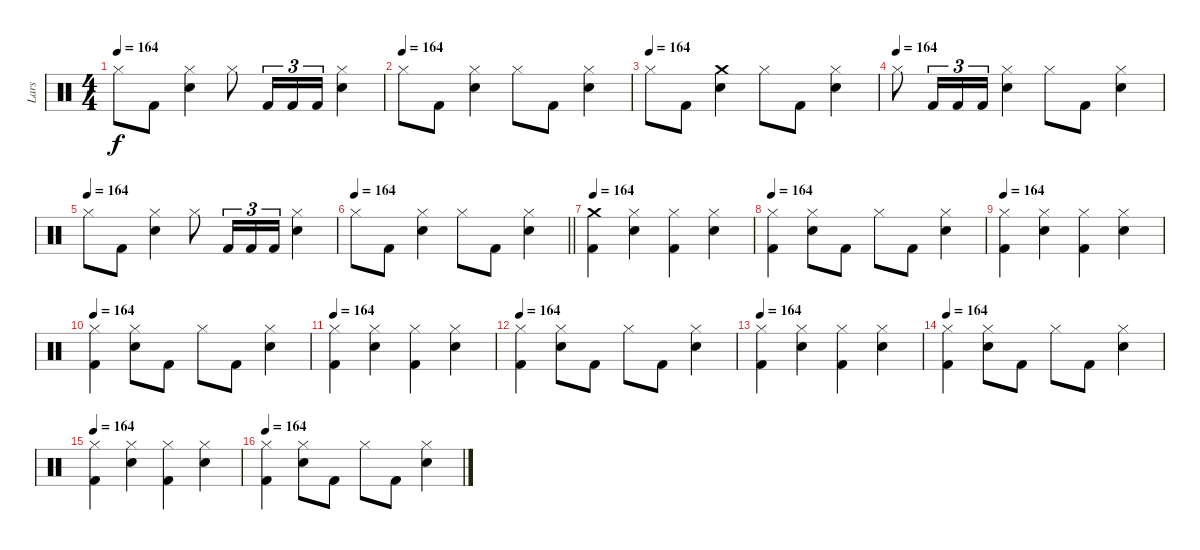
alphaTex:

\track ("Lars" "Lars") {instrument percussion}
\staff {score}
\articulation defaults
\ts (4 4)
\tempo 164
\clef neutral
\ks c "Hi-Hat (closed)".8{dy f} "Kick (hit) 2".8
("Snare (hit) 2" "Hi-Hat (closed)").4 "Hi-Hat (closed)".8 "Kick (hit) 2".16{tu (3 2)} "Kick (hit) 2".16{tu (3 2)} "Kick (hit) 2".16{tu (3 2)} ("Snare (hit) 2" "Hi-Hat (closed)").4 |
\tempo (164)
"Hi-Hat (closed)".8 "Kick (hit) 2".8 ("Snare (hit) 2" "Hi-Hat (closed)").4 "Hi-Hat (closed)".8 "Kick (hit) 2".8 ("Snare (hit) 2" "Hi-Hat (closed)").4 |
\tempo (164)
"Hi-Hat (closed)".8 "Kick (hit) 2".8 ("Crash medium (hit)" "Snare (hit) 2").4 "Hi-Hat (closed)".8 "Kick (hit) 2".8 ("Snare (hit) 2" "Hi-Hat (closed)").4 |
\tempo (164)
"Hi-Hat (closed)".8 "Kick (hit) 2".16{tu (3 2)} "Kick (hit) 2".16{tu (3 2)} "Kick (hit) 2".16{tu (3 2)} ("Snare (hit) 2" "Hi-Hat (closed)").4 "Hi-Hat (closed)".8 "Kick (hit) 2".8 ("Snare (hit) 2" "Hi-Hat (closed)").4 |
\tempo (164)
"Hi-Hat (closed)".8 "Kick (hit) 2".8 ("Snare (hit) 2" "Hi-Hat (closed)").4 "Hi-Hat (closed)".8 "Kick (hit) 2".16{tu (3 2)} "Kick (hit) 2".16{tu (3 2)} "Kick (hit) 2".16{tu (3 2)} ("Snare (hit) 2" "Hi-Hat (closed)").4 |
\tempo 164
\barLineRight lightlight "Hi-Hat (closed)".8 "Kick (hit) 2".8
("Snare (hit) 2" "Hi-Hat (closed)").4 "Hi-Hat (closed)".8 "Kick (hit) 2".8 ("Snare (hit) 2" "Hi-Hat (closed)").4 |
\tempo 164
("Kick (hit) 2" "Crash medium (hit)").4 ("Hi-Hat (closed)" "Snare (hit) 2").4 ("Hi-Hat (closed)" "Kick (hit) 2").4 ("Snare (hit) 2" "Hi-Hat (closed)").4 |
\tempo 164
("Hi-Hat (closed)" "Kick (hit) 2").4 ("Snare (hit) 2" "Hi-Hat (closed)").8 "Kick (hit) 2".8 "Hi-Hat (closed)".8 "Kick (hit) 2".8 ("Snare (hit) 2" "Hi-Hat (closed)").4 |
\tempo 164
("Hi-Hat (closed)" "Kick (hit) 2").4 ("Snare (hit) 2" "Hi-Hat (closed)").4 ("Kick (hit) 2" "Hi-Hat (closed)").4 ("Hi-Hat (closed)" "Snare (hit) 2").4 |
\tempo 164
("Kick (hit) 2" "Hi-Hat (closed)").4 ("Snare (hit) 2" "Hi-Hat (closed)").8 "Kick (hit) 2".8 "Hi-Hat (closed)".8 "Kick (hit) 2".8 ("Snare (hit) 2" "Hi-Hat (closed)").4 |
\tempo 164
("Hi-Hat (closed)" "Kick (hit) 2").4 ("Snare (hit) 2" "Hi-Hat (closed)").4 ("Kick (hit) 2" "Hi-Hat (closed)").4 ("Hi-Hat (closed)" "Snare (hit) 2").4 |
\tempo 164
("Kick (hit) 2" "Hi-Hat (closed)").4 ("Snare (hit) 2" "Hi-Hat (closed)").8 "Kick (hit) 2".8 "Hi-Hat (closed)".8 "Kick (hit) 2".8 ("Snare (hit) 2" "Hi-Hat (closed)").4 |
\tempo 164
("Hi-Hat (closed)" "Kick (hit) 2").4 ("Snare (hit) 2" "Hi-Hat (closed)").4 ("Kick (hit) 2" "Hi-Hat (closed)").4 ("Hi-Hat (closed)" "Snare (hit) 2").4 |
\tempo 164
("Kick (hit) 2" "Hi-Hat (closed)").4 ("Snare (hit) 2" "Hi-Hat (closed)").8 "Kick (hit) 2".8 "Hi-Hat (closed)".8 "Kick (hit) 2".8 ("Snare (hit) 2" "Hi-Hat (closed)").4 |
\tempo 164
("Hi-Hat (closed)" "Kick (hit) 2").4 ("Snare (hit) 2" "Hi-Hat (closed)").4 ("Kick (hit) 2" "Hi-Hat (closed)").4 ("Hi-Hat (closed)" "Snare (hit) 2").4 |
\tempo 164
("Kick (hit) 2" "Hi-Hat (closed)").4 ("Snare (hit) 2" "Hi-Hat (closed)").8 "Kick (hit) 2".8 "Hi-Hat (closed)".8 "Kick (hit) 2".8 ("Snare (hit) 2" "Hi-Hat (closed)").4
